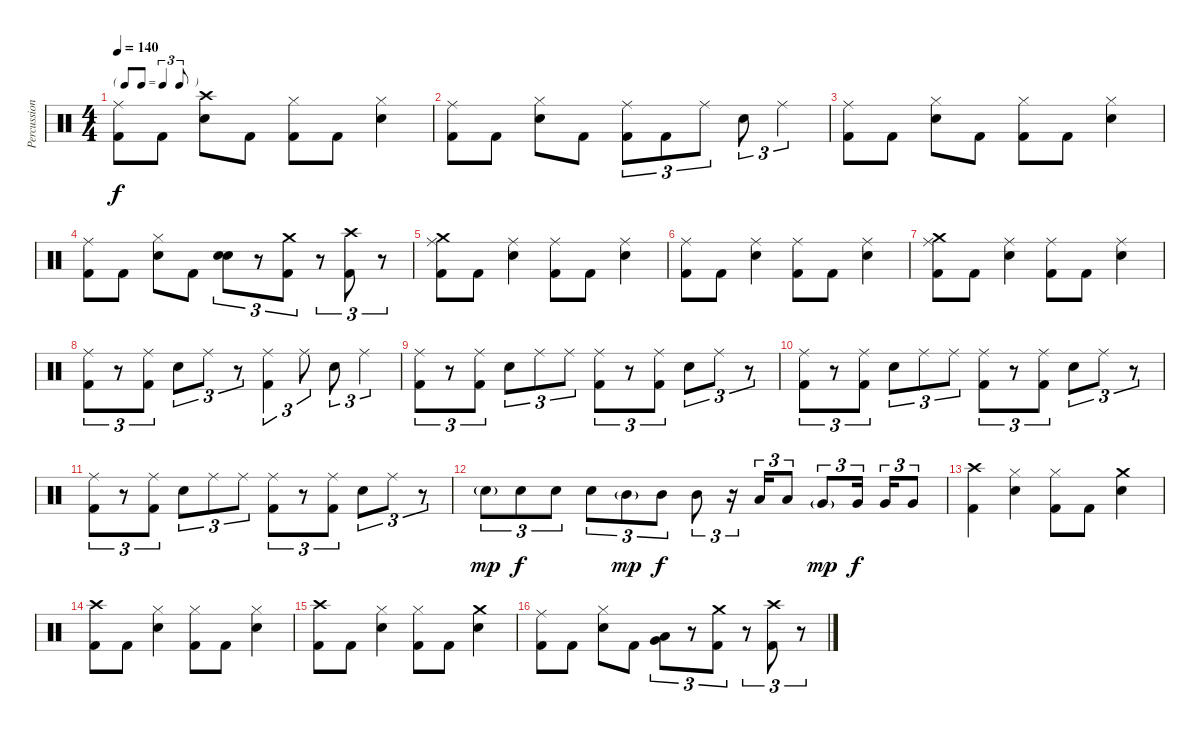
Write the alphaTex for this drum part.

\track ("Percussion" "Percussion") {instrument percussion}
\staff {score}
\articulation defaults
\ts (4 4)
\tf triplet8th
\tempo 140
\clef neutral
\ks c
("Kick (hit) 2" "Ride (middle)").8{dy f} "Kick (hit) 2".8 ("Snare (hit) 2" "Crash high (hit)").8 "Kick (hit) 2".8 ("Kick (hit) 2" "Hi-Hat (closed)").8 "Kick (hit) 2".8 ("Snare (hit) 2" "Hi-Hat (closed)").4 |
("Kick (hit) 2" "Ride (middle)").8 "Kick (hit) 2".8 ("Snare (hit) 2" "Hi-Hat (closed)").8 "Kick (hit) 2".8 ("Kick (hit) 2" "Ride (middle)").8{tu (3 2)} "Kick (hit) 2".8{tu (3 2)} "Ride (middle)".8{tu (3 2)} "Snare (hit) 2".8{tu (3 2)} "Ride (middle)".4{tu (3 2)} |
("Kick (hit) 2" "Ride (middle)").8 "Kick (hit) 2".8 ("Snare (hit) 2" "Hi-Hat (closed)").8 "Kick (hit) 2".8 ("Kick (hit) 2" "Hi-Hat (closed)").8 "Kick (hit) 2".8 ("Snare (hit) 2" "Hi-Hat (closed)").4 |
("Kick (hit) 2" "Ride (middle)").8 "Kick (hit) 2".8 ("Snare (hit) 2" "Hi-Hat (closed)").8 "Kick (hit) 2".8 ("Snare (hit) 2" "Snare (hit) 2").8{tu (3 2)} r.8{tu (3 2)} ("Kick (hit) 2" "Crash medium (hit)").8{tu (3 2)} r.8{tu (3 2)} ("Kick (hit) 2" "Crash high (hit)").8{tu (3 2)} r.8{tu (3 2)} |
("Kick (hit) 2" "Ride (middle)" "Crash medium (hit)").8 "Kick (hit) 2".8 ("Snare (hit) 2" "Ride (middle)").4 ("Kick (hit) 2" "Ride (middle)").8 "Kick (hit) 2".8 ("Snare (hit) 2" "Ride (middle)").4 |
("Kick (hit) 2" "Ride (middle)").8 "Kick (hit) 2".8 ("Snare (hit) 2" "Ride (middle)").4 ("Kick (hit) 2" "Ride (middle)").8 "Kick (hit) 2".8 ("Snare (hit) 2" "Ride (middle)").4 |
("Kick (hit) 2" "Ride (middle)" "Crash medium (hit)").8 "Kick (hit) 2".8 ("Snare (hit) 2" "Ride (middle)").4 ("Kick (hit) 2" "Ride (middle)").8 "Kick (hit) 2".8 ("Snare (hit) 2" "Ride (middle)").4 |
("Kick (hit) 2" "Ride (middle)").8{tu (3 2)} r.8{tu (3 2)} ("Kick (hit) 2" "Ride (middle)").8{tu (3 2)} "Snare (hit) 2".8{tu (3 2)} "Ride (middle)".8{tu (3 2)} r.8{tu (3 2)} ("Kick (hit) 2" "Ride (middle)").4{tu (3 2)} "Ride (middle)".8{tu (3 2)} "Snare (hit) 2".8{tu (3 2)} "Ride (middle)".4{tu (3 2)} |
("Kick (hit) 2" "Ride (middle)").8{tu (3 2)} r.8{tu (3 2)} ("Kick (hit) 2" "Ride (middle)").8{tu (3 2)} "Snare (hit) 2".8{tu (3 2)} "Ride (middle)".8{tu (3 2)} "Ride (middle)".8{tu (3 2)} ("Kick (hit) 2" "Ride (middle)").8{tu (3 2)} r.8{tu (3 2)} ("Kick (hit) 2" "Ride (middle)").8{tu (3 2)} "Snare (hit) 2".8{tu (3 2)} "Ride (middle)".8{tu (3 2)} r.8{tu (3 2)} |
("Kick (hit) 2" "Ride (middle)").8{tu (3 2)} r.8{tu (3 2)} ("Kick (hit) 2" "Ride (middle)").8{tu (3 2)} "Snare (hit) 2".8{tu (3 2)} "Ride (middle)".8{tu (3 2)} "Ride (middle)".8{tu (3 2)} ("Kick (hit) 2" "Ride (middle)").8{tu (3 2)} r.8{tu (3 2)} ("Kick (hit) 2" "Ride (middle)").8{tu (3 2)} "Snare (hit) 2".8{tu (3 2)} "Ride (middle)".8{tu (3 2)} r.8{tu (3 2)} |
("Kick (hit) 2" "Ride (middle)").8{tu (3 2)} r.8{tu (3 2)} ("Kick (hit) 2" "Ride (middle)").8{tu (3 2)} "Snare (hit) 2".8{tu (3 2)} "Ride (middle)".8{tu (3 2)} "Ride (middle)".8{tu (3 2)} ("Kick (hit) 2" "Ride (middle)").8{tu (3 2)} r.8{tu (3 2)} ("Kick (hit) 2" "Ride (middle)").8{tu (3 2)} "Snare (hit) 2".8{tu (3 2)} "Ride (middle)".8{tu (3 2)} r.8{tu (3 2)} |
"Snare (hit) 2"{g}.8{tu (3 2) dy mp} "Snare (hit) 2".8{tu (3 2) dy f} "Snare (hit) 2".8{tu (3 2)} "Snare (hit) 2".8{tu (3 2)} "Mid Tom (hit)"{g}.8{tu (3 2) dy mp} "Mid Tom (hit)".8{tu (3 2) dy f} "Mid Tom (hit)".8{tu (3 2)} r.16{tu (3 2)} "Low Tom (hit)".16{tu (3 2)} "Low Tom (hit)".8{tu (3 2)} "Very Low Tom (hit)"{g}.8{tu (3 2) dy mp} "Very Low Tom (hit)".16{tu (3 2) dy f} "Very Low Tom (hit)".16{tu (3 2)} "Very Low Tom (hit)".8{tu (3 2)} |
("Kick (hit) 2" "Crash high (hit)").4 ("Snare (hit) 2" "Hi-Hat (closed)").4 ("Kick (hit) 2" "Hi-Hat (closed)").8 "Kick (hit) 2".8 ("Snare (hit) 2" "Crash medium (hit)").4 |
("Kick (hit) 2" "Crash high (hit)").8 "Kick (hit) 2".8 ("Snare (hit) 2" "Hi-Hat (closed)").4 ("Kick (hit) 2" "Hi-Hat (closed)").8 "Kick (hit) 2".8 ("Snare (hit) 2" "Hi-Hat (closed)").4 |
("Kick (hit) 2" "Crash high (hit)").8 "Kick (hit) 2".8 ("Snare (hit) 2" "Hi-Hat (closed)").4 ("Kick (hit) 2" "Hi-Hat (closed)").8 "Kick (hit) 2".8 ("Snare (hit) 2" "Crash medium (hit)").4 |
("Kick (hit) 2" "Ride (middle)").8 "Kick (hit) 2".8 ("Snare (hit) 2" "Hi-Hat (closed)").8 "Kick (hit) 2".8 ("Low Tom (hit)" "Very Low Tom (hit)").8{tu (3 2)} r.8{tu (3 2)} ("Kick (hit) 2" "Crash medium (hit)").8{tu (3 2)} r.8{tu (3 2)} ("Kick (hit) 2" "Crash high (hit)").8{tu (3 2)} r.8{tu (3 2)}
